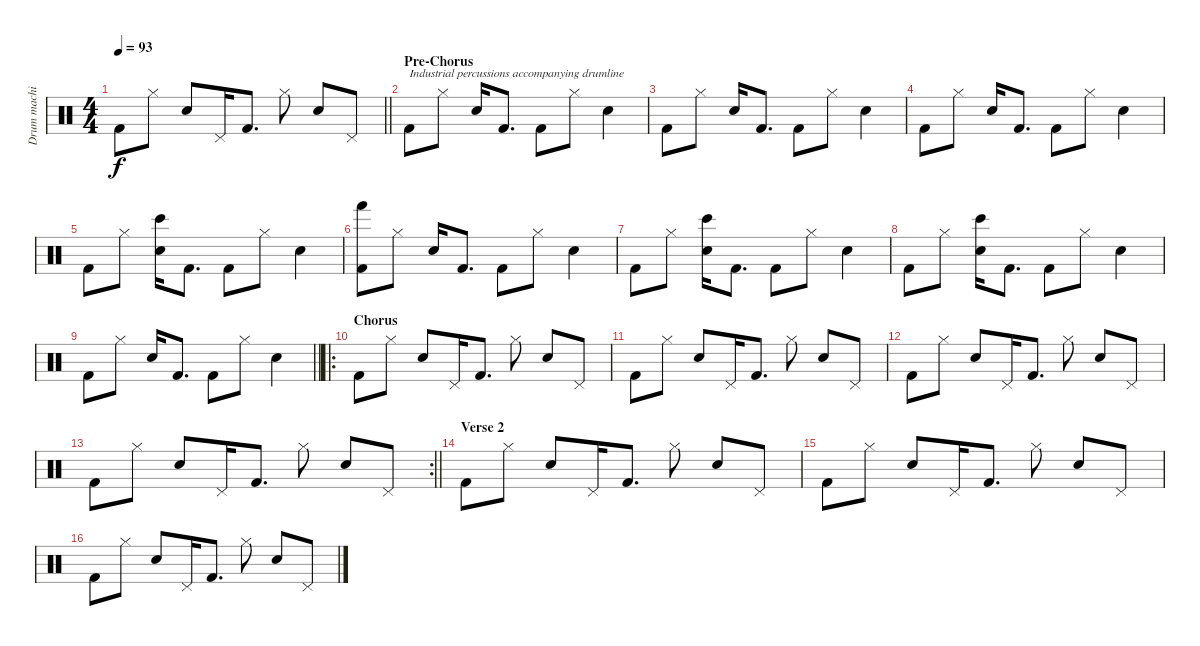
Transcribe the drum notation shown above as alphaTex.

\track ("Drum machine" "Drum machi") {instrument percussion}
\staff {score}
\articulation defaults
\ts (4 4)
\tempo 93
\clef neutral
\barLineRight lightlight
\ks c "Kick (hit) 2".8{dy f} "Hi-Hat (closed)".8 "Snare (hit) 2".8 "Pedal Hi-Hat (hit)".16 "Kick (hit) 2".8{d} "Hi-Hat (closed)".8 "Snare (hit) 2".8 "Pedal Hi-Hat (hit)".8
|
\section ("" "Pre-Chorus")
"Kick (hit) 2".8{txt "Industrial percussions accompanying drumline"} "Hi-Hat (closed)".8 "Snare (hit) 2".16 "Kick (hit) 2".8{d} "Kick (hit) 2".8 "Hi-Hat (closed)".8 "Snare (hit) 2".4 |
"Kick (hit) 2".8 "Hi-Hat (closed)".8 "Snare (hit) 2".16 "Kick (hit) 2".8{d} "Kick (hit) 2".8 "Hi-Hat (closed)".8 "Snare (hit) 2".4 |
"Kick (hit) 2".8 "Hi-Hat (closed)".8 "Snare (hit) 2".16 "Kick (hit) 2".8{d} "Kick (hit) 2".8 "Hi-Hat (closed)".8 "Snare (hit) 2".4 |
"Kick (hit) 2".8 "Hi-Hat (closed)".8 ("Bongo High (hit)" "Snare (hit) 2").16 "Kick (hit) 2".8{d} "Kick (hit) 2".8 "Hi-Hat (closed)".8 "Snare (hit) 2".4 |
("Hand (hit)" "Kick (hit) 2").8 "Hi-Hat (closed)".8 "Snare (hit) 2".16 "Kick (hit) 2".8{d} "Kick (hit) 2".8 "Hi-Hat (closed)".8 "Snare (hit) 2".4 |
"Kick (hit) 2".8 "Hi-Hat (closed)".8 ("Bongo High (hit)" "Snare (hit) 2").16 "Kick (hit) 2".8{d} "Kick (hit) 2".8 "Hi-Hat (closed)".8 "Snare (hit) 2".4 |
"Kick (hit) 2".8 "Hi-Hat (closed)".8 ("Bongo High (hit)" "Snare (hit) 2").16 "Kick (hit) 2".8{d} "Kick (hit) 2".8 "Hi-Hat (closed)".8 "Snare (hit) 2".4 |
\barLineRight lightlight "Kick (hit) 2".8 "Hi-Hat (closed)".8 "Snare (hit) 2".16 "Kick (hit) 2".8{d} "Kick (hit) 2".8 "Hi-Hat (closed)".8 "Snare (hit) 2".4
|
\ro
\section ("" "Chorus")
"Kick (hit) 2".8 "Hi-Hat (closed)".8 "Snare (hit) 2".8 "Pedal Hi-Hat (hit)".16 "Kick (hit) 2".8{d} "Hi-Hat (closed)".8 "Snare (hit) 2".8 "Pedal Hi-Hat (hit)".8 |
"Kick (hit) 2".8 "Hi-Hat (closed)".8 "Snare (hit) 2".8 "Pedal Hi-Hat (hit)".16 "Kick (hit) 2".8{d} "Hi-Hat (closed)".8 "Snare (hit) 2".8 "Pedal Hi-Hat (hit)".8 |
"Kick (hit) 2".8 "Hi-Hat (closed)".8 "Snare (hit) 2".8 "Pedal Hi-Hat (hit)".16 "Kick (hit) 2".8{d} "Hi-Hat (closed)".8 "Snare (hit) 2".8 "Pedal Hi-Hat (hit)".8 |
\rc 2
\barLineRight lightlight "Kick (hit) 2".8 "Hi-Hat (closed)".8 "Snare (hit) 2".8 "Pedal Hi-Hat (hit)".16 "Kick (hit) 2".8{d} "Hi-Hat (closed)".8 "Snare (hit) 2".8 "Pedal Hi-Hat (hit)".8
|
\section ("" "Verse 2")
"Kick (hit) 2".8 "Hi-Hat (closed)".8 "Snare (hit) 2".8 "Pedal Hi-Hat (hit)".16 "Kick (hit) 2".8{d} "Hi-Hat (closed)".8 "Snare (hit) 2".8 "Pedal Hi-Hat (hit)".8 |
"Kick (hit) 2".8 "Hi-Hat (closed)".8 "Snare (hit) 2".8 "Pedal Hi-Hat (hit)".16 "Kick (hit) 2".8{d} "Hi-Hat (closed)".8 "Snare (hit) 2".8 "Pedal Hi-Hat (hit)".8 |
"Kick (hit) 2".8 "Hi-Hat (closed)".8 "Snare (hit) 2".8 "Pedal Hi-Hat (hit)".16 "Kick (hit) 2".8{d} "Hi-Hat (closed)".8 "Snare (hit) 2".8 "Pedal Hi-Hat (hit)".8
